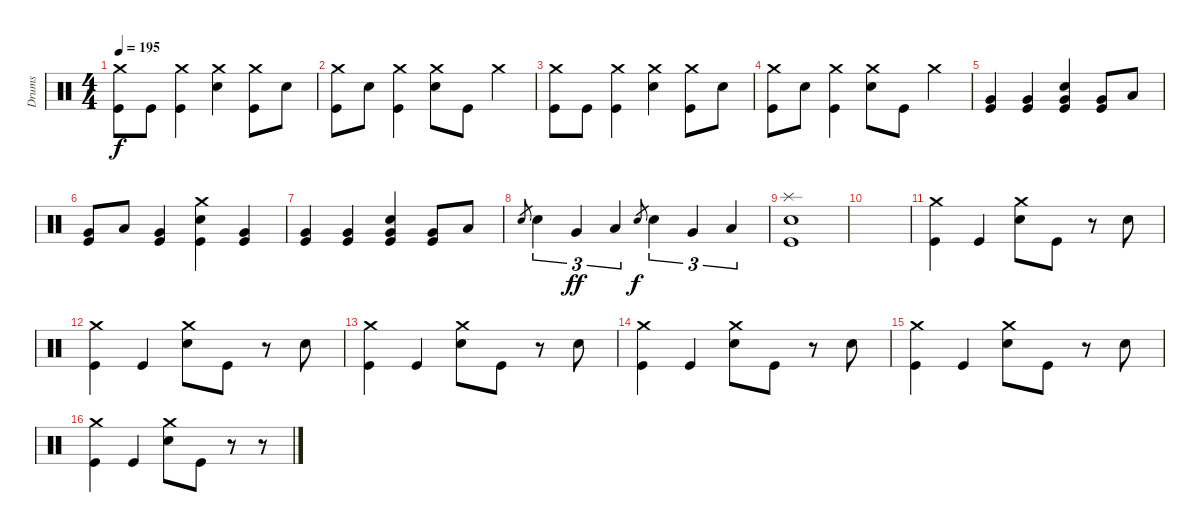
\track ("Drums" "Drums") {instrument percussion}
\staff {score}
\articulation defaults
\ts (4 4)
\tempo 195
\clef neutral
\ks c
("Crash medium (hit)" "Kick (hit)").8{dy f} "Kick (hit)".8 ("Crash medium (hit)" "Kick (hit)").4 ("Crash medium (hit)" "Electric Snare (hit)").4 ("Crash medium (hit)" "Kick (hit)").8 "Electric Snare (hit)".8 |
("Crash medium (hit)" "Kick (hit)").8 "Electric Snare (hit)".8 ("Crash medium (hit)" "Kick (hit)").4 ("Crash medium (hit)" "Electric Snare (hit)").8 "Kick (hit)".8 "Crash medium (hit)".4 |
("Crash medium (hit)" "Kick (hit)").8 "Kick (hit)".8 ("Crash medium (hit)" "Kick (hit)").4 ("Crash medium (hit)" "Electric Snare (hit)").4 ("Crash medium (hit)" "Kick (hit)").8 "Electric Snare (hit)".8 |
("Crash medium (hit)" "Kick (hit)").8 "Electric Snare (hit)".8 ("Crash medium (hit)" "Kick (hit)").4 ("Crash medium (hit)" "Electric Snare (hit)").8 "Kick (hit)".8 "Crash medium (hit)".4 |
("Very Low Tom (hit)" "Kick (hit)").4 ("Very Low Tom (hit)" "Kick (hit)").4 ("Very Low Tom (hit)" "Electric Snare (hit)" "Kick (hit)").4 ("Very Low Tom (hit)" "Kick (hit)").8 "Low Tom (hit)".8 |
("Very Low Tom (hit)" "Kick (hit)").8 "Low Tom (hit)".8 ("Very Low Tom (hit)" "Kick (hit)").4 ("Crash medium (hit)" "Electric Snare (hit)" "Kick (hit)").4 ("Very Low Tom (hit)" "Kick (hit)").4 |
("Very Low Tom (hit)" "Kick (hit)").4 ("Very Low Tom (hit)" "Kick (hit)").4 ("Very Low Tom (hit)" "Electric Snare (hit)" "Kick (hit)").4 ("Very Low Tom (hit)" "Kick (hit)").8 "Low Tom (hit)".8 |
"Electric Snare (hit)".8{gr} "Electric Snare (hit)".4{tu (3 2)} "Very Low Tom (hit)".4{tu (3 2) dy ff} "Low Floor Tom (hit)".4{tu (3 2)} "Electric Snare (hit)".8{gr dy f} "Electric Snare (hit)".4{tu (3 2)} "Very Low Tom (hit)".4{tu (3 2)} "Low Floor Tom (hit)".4{tu (3 2)} |
("Splash (hit)" "Electric Snare (hit)" "Kick (hit)").1 |
|
("Crash medium (hit)" "Kick (hit)").4 "Kick (hit)".4 ("Crash medium (hit)" "Electric Snare (hit)").8 "Kick (hit)".8 r.8 "Electric Snare (hit)".8 |
("Crash medium (hit)" "Kick (hit)").4 "Kick (hit)".4 ("Crash medium (hit)" "Electric Snare (hit)").8 "Kick (hit)".8 r.8 "Electric Snare (hit)".8 |
("Crash medium (hit)" "Kick (hit)").4 "Kick (hit)".4 ("Crash medium (hit)" "Electric Snare (hit)").8 "Kick (hit)".8 r.8 "Electric Snare (hit)".8 |
("Crash medium (hit)" "Kick (hit)").4 "Kick (hit)".4 ("Crash medium (hit)" "Electric Snare (hit)").8 "Kick (hit)".8 r.8 "Electric Snare (hit)".8 |
("Crash medium (hit)" "Kick (hit)").4 "Kick (hit)".4 ("Crash medium (hit)" "Electric Snare (hit)").8 "Kick (hit)".8 r.8 "Electric Snare (hit)".8 |
("Crash medium (hit)" "Kick (hit)").4 "Kick (hit)".4 ("Crash medium (hit)" "Electric Snare (hit)").8 "Kick (hit)".8 r.8 r.8
